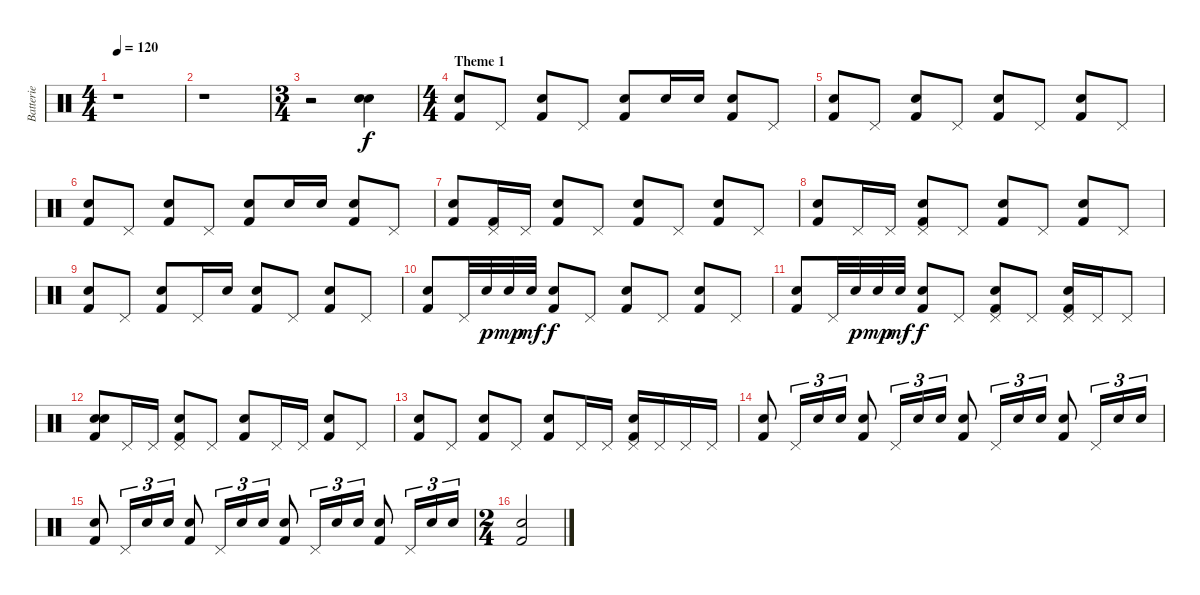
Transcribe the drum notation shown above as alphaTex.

\track ("Batterie" "Batterie") {instrument percussion}
\staff {score}
\articulation defaults
\ts (4 4)
\tempo 120
\clef neutral
\ks c
r.1{dy f} |
r.1 |
\ts (3 4)
r.2 ("Snare (hit) 2" "Electric Snare (hit)").4 |
\ts (4 4)
\section ("" "Theme 1")
("Electric Snare (hit)" "Kick (hit) 2").8 "Pedal Hi-Hat (hit)".8 ("Electric Snare (hit)" "Kick (hit) 2").8 "Pedal Hi-Hat (hit)".8 ("Electric Snare (hit)" "Kick (hit) 2").8 "Electric Snare (hit)".16 "Electric Snare (hit)".16 ("Electric Snare (hit)" "Kick (hit) 2").8 "Pedal Hi-Hat (hit)".8 |
("Electric Snare (hit)" "Kick (hit) 2").8 "Pedal Hi-Hat (hit)".8 ("Electric Snare (hit)" "Kick (hit) 2").8 "Pedal Hi-Hat (hit)".8 ("Electric Snare (hit)" "Kick (hit) 2").8 "Pedal Hi-Hat (hit)".8 ("Electric Snare (hit)" "Kick (hit) 2").8 "Pedal Hi-Hat (hit)".8 |
("Electric Snare (hit)" "Kick (hit) 2").8 "Pedal Hi-Hat (hit)".8 ("Electric Snare (hit)" "Kick (hit) 2").8 "Pedal Hi-Hat (hit)".8 ("Electric Snare (hit)" "Kick (hit) 2").8 "Electric Snare (hit)".16 "Electric Snare (hit)".16 ("Electric Snare (hit)" "Kick (hit) 2").8 "Pedal Hi-Hat (hit)".8 |
("Electric Snare (hit)" "Kick (hit) 2").8 ("Pedal Hi-Hat (hit)" "Kick (hit) 2").16 "Pedal Hi-Hat (hit)".16 ("Electric Snare (hit)" "Kick (hit) 2").8 "Pedal Hi-Hat (hit)".8 ("Electric Snare (hit)" "Kick (hit) 2").8 "Pedal Hi-Hat (hit)".8 ("Electric Snare (hit)" "Kick (hit) 2").8 "Pedal Hi-Hat (hit)".8 |
("Electric Snare (hit)" "Kick (hit) 2").8 "Pedal Hi-Hat (hit)".16 "Pedal Hi-Hat (hit)".16 ("Pedal Hi-Hat (hit)" "Electric Snare (hit)" "Kick (hit) 2").8 "Pedal Hi-Hat (hit)".8 ("Electric Snare (hit)" "Kick (hit) 2").8 "Pedal Hi-Hat (hit)".8 ("Electric Snare (hit)" "Kick (hit) 2").8 "Pedal Hi-Hat (hit)".8 |
("Electric Snare (hit)" "Kick (hit) 2").8 "Pedal Hi-Hat (hit)".8 ("Electric Snare (hit)" "Kick (hit) 2").8 "Pedal Hi-Hat (hit)".16 "Electric Snare (hit)".16 ("Electric Snare (hit)" "Kick (hit) 2").8 "Pedal Hi-Hat (hit)".8 ("Electric Snare (hit)" "Kick (hit) 2").8 "Pedal Hi-Hat (hit)".8 |
("Electric Snare (hit)" "Kick (hit) 2").8 "Pedal Hi-Hat (hit)".32 "Electric Snare (hit)".32{dy p} "Electric Snare (hit)".32{dy mp} "Electric Snare (hit)".32{dy mf} ("Electric Snare (hit)" "Kick (hit) 2").8{dy f} "Pedal Hi-Hat (hit)".8 ("Electric Snare (hit)" "Kick (hit) 2").8 "Pedal Hi-Hat (hit)".8 ("Electric Snare (hit)" "Kick (hit) 2").8 "Pedal Hi-Hat (hit)".8 |
("Electric Snare (hit)" "Kick (hit) 2").8 "Pedal Hi-Hat (hit)".32 "Electric Snare (hit)".32{dy p} "Electric Snare (hit)".32{dy mp} "Electric Snare (hit)".32{dy mf} ("Electric Snare (hit)" "Kick (hit) 2").8{dy f} "Pedal Hi-Hat (hit)".8 ("Pedal Hi-Hat (hit)" "Electric Snare (hit)" "Kick (hit) 2").8 "Pedal Hi-Hat (hit)".8 ("Pedal Hi-Hat (hit)" "Electric Snare (hit)" "Kick (hit) 2").16 "Pedal Hi-Hat (hit)".16 "Pedal Hi-Hat (hit)".8 |
("Electric Snare (hit)" "Electric Snare (hit)" "Kick (hit) 2").8 "Pedal Hi-Hat (hit)".16 "Pedal Hi-Hat (hit)".16 ("Pedal Hi-Hat (hit)" "Electric Snare (hit)" "Kick (hit) 2").8 "Pedal Hi-Hat (hit)".8 ("Electric Snare (hit)" "Kick (hit) 2").8 "Pedal Hi-Hat (hit)".16 "Pedal Hi-Hat (hit)".16 ("Electric Snare (hit)" "Kick (hit) 2").8 "Pedal Hi-Hat (hit)".8 |
("Electric Snare (hit)" "Kick (hit) 2").8 "Pedal Hi-Hat (hit)".8 ("Electric Snare (hit)" "Kick (hit) 2").8 "Pedal Hi-Hat (hit)".8 ("Electric Snare (hit)" "Kick (hit) 2").8 "Pedal Hi-Hat (hit)".16 "Pedal Hi-Hat (hit)".16 ("Pedal Hi-Hat (hit)" "Electric Snare (hit)" "Kick (hit) 2").16 "Pedal Hi-Hat (hit)".16 "Pedal Hi-Hat (hit)".16 "Pedal Hi-Hat (hit)".16 |
("Electric Snare (hit)" "Kick (hit) 2").8 "Pedal Hi-Hat (hit)".16{tu (3 2)} "Electric Snare (hit)".16{tu (3 2)} "Electric Snare (hit)".16{tu (3 2)} ("Electric Snare (hit)" "Kick (hit) 2").8 "Pedal Hi-Hat (hit)".16{tu (3 2)} "Electric Snare (hit)".16{tu (3 2)} "Electric Snare (hit)".16{tu (3 2)} ("Electric Snare (hit)" "Kick (hit) 2").8 "Pedal Hi-Hat (hit)".16{tu (3 2)} "Electric Snare (hit)".16{tu (3 2)} "Electric Snare (hit)".16{tu (3 2)} ("Electric Snare (hit)" "Kick (hit) 2").8 "Pedal Hi-Hat (hit)".16{tu (3 2)} "Electric Snare (hit)".16{tu (3 2)} "Electric Snare (hit)".16{tu (3 2)} |
("Electric Snare (hit)" "Kick (hit) 2").8 "Pedal Hi-Hat (hit)".16{tu (3 2)} "Electric Snare (hit)".16{tu (3 2)} "Electric Snare (hit)".16{tu (3 2)} ("Electric Snare (hit)" "Kick (hit) 2").8 "Pedal Hi-Hat (hit)".16{tu (3 2)} "Electric Snare (hit)".16{tu (3 2)} "Electric Snare (hit)".16{tu (3 2)} ("Electric Snare (hit)" "Kick (hit) 2").8 "Pedal Hi-Hat (hit)".16{tu (3 2)} "Electric Snare (hit)".16{tu (3 2)} "Electric Snare (hit)".16{tu (3 2)} ("Electric Snare (hit)" "Kick (hit) 2").8 "Pedal Hi-Hat (hit)".16{tu (3 2)} "Electric Snare (hit)".16{tu (3 2)} "Electric Snare (hit)".16{tu (3 2)} |
\ts (2 4)
("Electric Snare (hit)" "Kick (hit) 2").2
